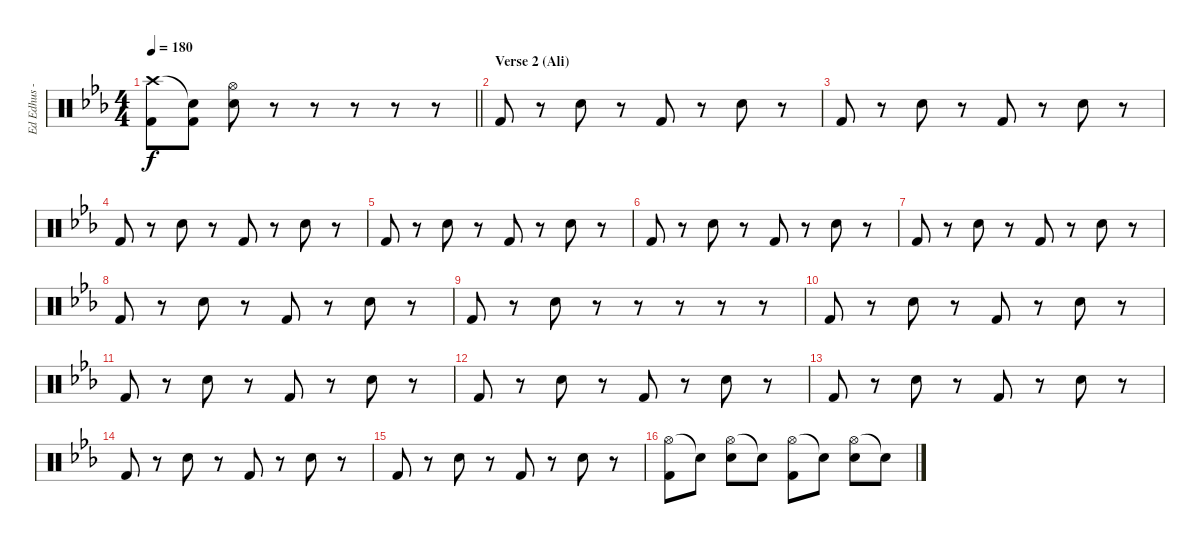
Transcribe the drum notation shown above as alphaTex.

\track ("Ed Edhus - Drums" "Ed Edhus -") {instrument percussion bank 127}
\staff {score}
\articulation defaults
\ts (4 4)
\tempo 180
\clef neutral
\barLineRight lightlight
\ks eb
("Crash high (hit)" "Kick (hit) 2").8{dy f} ("Snare (hit)"{t} "Kick (hit) 2").8 ("Hi-Hat (open)" "Snare (hit) 2").8 r.8 r.8 r.8 r.8 r.8 |
\section ("" "Verse 2 (Ali)")
"Kick (hit) 2".8 r.8 "Snare (hit) 2".8 r.8 "Kick (hit) 2".8 r.8 "Snare (hit) 2".8 r.8 |
"Kick (hit) 2".8 r.8 "Snare (hit) 2".8 r.8 "Kick (hit) 2".8 r.8 "Snare (hit) 2".8 r.8 |
"Kick (hit) 2".8 r.8 "Snare (hit) 2".8 r.8 "Kick (hit) 2".8 r.8 "Snare (hit) 2".8 r.8 |
"Kick (hit) 2".8 r.8 "Snare (hit) 2".8 r.8 "Kick (hit) 2".8 r.8 "Snare (hit) 2".8 r.8 |
"Kick (hit) 2".8 r.8 "Snare (hit) 2".8 r.8 "Kick (hit) 2".8 r.8 "Snare (hit) 2".8 r.8 |
"Kick (hit) 2".8 r.8 "Snare (hit) 2".8 r.8 "Kick (hit) 2".8 r.8 "Snare (hit) 2".8 r.8 |
"Kick (hit) 2".8 r.8 "Snare (hit) 2".8 r.8 "Kick (hit) 2".8 r.8 "Snare (hit) 2".8 r.8 |
"Kick (hit) 2".8 r.8 "Snare (hit) 2".8 r.8 r.8 r.8 r.8 r.8 |
"Kick (hit) 2".8 r.8 "Snare (hit) 2".8 r.8 "Kick (hit) 2".8 r.8 "Snare (hit) 2".8 r.8 |
"Kick (hit) 2".8 r.8 "Snare (hit) 2".8 r.8 "Kick (hit) 2".8 r.8 "Snare (hit) 2".8 r.8 |
"Kick (hit) 2".8 r.8 "Snare (hit) 2".8 r.8 "Kick (hit) 2".8 r.8 "Snare (hit) 2".8 r.8 |
"Kick (hit) 2".8 r.8 "Snare (hit) 2".8 r.8 "Kick (hit) 2".8 r.8 "Snare (hit) 2".8 r.8 |
"Kick (hit) 2".8 r.8 "Snare (hit) 2".8 r.8 "Kick (hit) 2".8 r.8 "Snare (hit) 2".8 r.8 |
"Kick (hit) 2".8 r.8 "Snare (hit) 2".8 r.8 "Kick (hit) 2".8 r.8 "Snare (hit) 2".8 r.8 |
("Hi-Hat (open)" "Kick (hit) 2").8 "Snare (hit)"{t}.8 ("Hi-Hat (open)" "Snare (hit) 2").8 "Snare (hit)"{t}.8 ("Hi-Hat (open)" "Kick (hit) 2").8 "Snare (hit)"{t}.8 ("Hi-Hat (open)" "Snare (hit) 2").8 "Snare (hit)"{t}.8
